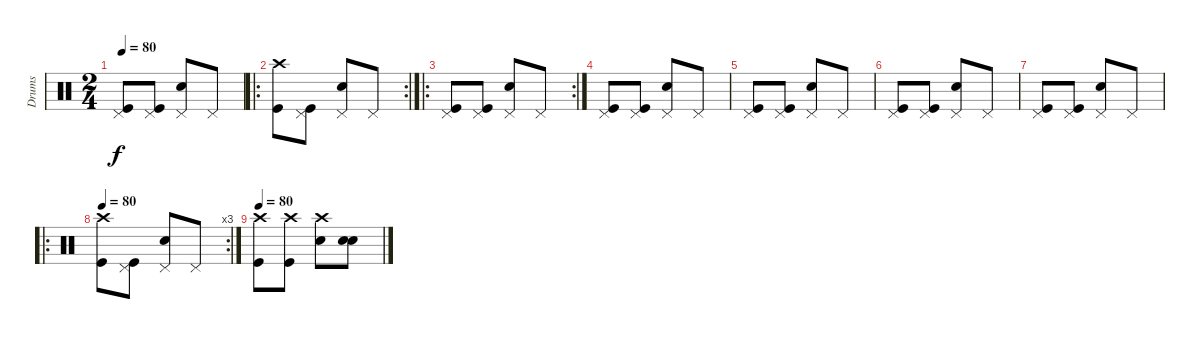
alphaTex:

\track ("Drums" "Drums") {instrument percussion}
\staff {score}
\articulation defaults
\ts (2 4)
\tempo 80
\clef neutral
\ks c
("Pedal Hi-Hat (hit)" "Kick (hit)").8{dy f} ("Pedal Hi-Hat (hit)" "Kick (hit)").8 ("Pedal Hi-Hat (hit)" "Snare (hit) 2").8 "Pedal Hi-Hat (hit)".8 |
\ro
\rc 2
("Crash high (hit)" "Kick (hit)").8 ("Pedal Hi-Hat (hit)" "Kick (hit)").8 ("Pedal Hi-Hat (hit)" "Snare (hit) 2").8 "Pedal Hi-Hat (hit)".8 |
\ro
\rc 2
("Pedal Hi-Hat (hit)" "Kick (hit)").8 ("Pedal Hi-Hat (hit)" "Kick (hit)").8 ("Pedal Hi-Hat (hit)" "Snare (hit) 2").8 "Pedal Hi-Hat (hit)".8 |
("Pedal Hi-Hat (hit)" "Kick (hit)").8 ("Pedal Hi-Hat (hit)" "Kick (hit)").8 ("Pedal Hi-Hat (hit)" "Snare (hit) 2").8 "Pedal Hi-Hat (hit)".8 |
("Pedal Hi-Hat (hit)" "Kick (hit)").8 ("Pedal Hi-Hat (hit)" "Kick (hit)").8 ("Pedal Hi-Hat (hit)" "Snare (hit) 2").8 "Pedal Hi-Hat (hit)".8 |
("Pedal Hi-Hat (hit)" "Kick (hit)").8 ("Pedal Hi-Hat (hit)" "Kick (hit)").8 ("Pedal Hi-Hat (hit)" "Snare (hit) 2").8 "Pedal Hi-Hat (hit)".8 |
("Pedal Hi-Hat (hit)" "Kick (hit)").8 ("Pedal Hi-Hat (hit)" "Kick (hit)").8 ("Pedal Hi-Hat (hit)" "Snare (hit) 2").8 "Pedal Hi-Hat (hit)".8 |
\ro
\rc 3
\tempo 80
("Crash high (hit)" "Kick (hit)").8 ("Pedal Hi-Hat (hit)" "Kick (hit)").8 ("Pedal Hi-Hat (hit)" "Snare (hit) 2").8 "Pedal Hi-Hat (hit)".8 |
\tempo 80
("Crash high (hit)" "Kick (hit)").8 ("Crash high (hit)" "Kick (hit)").8 ("Crash high (hit)" "Snare (hit) 2").8 ("Snare (hit)"{x} "Snare (hit)"{x}).8
